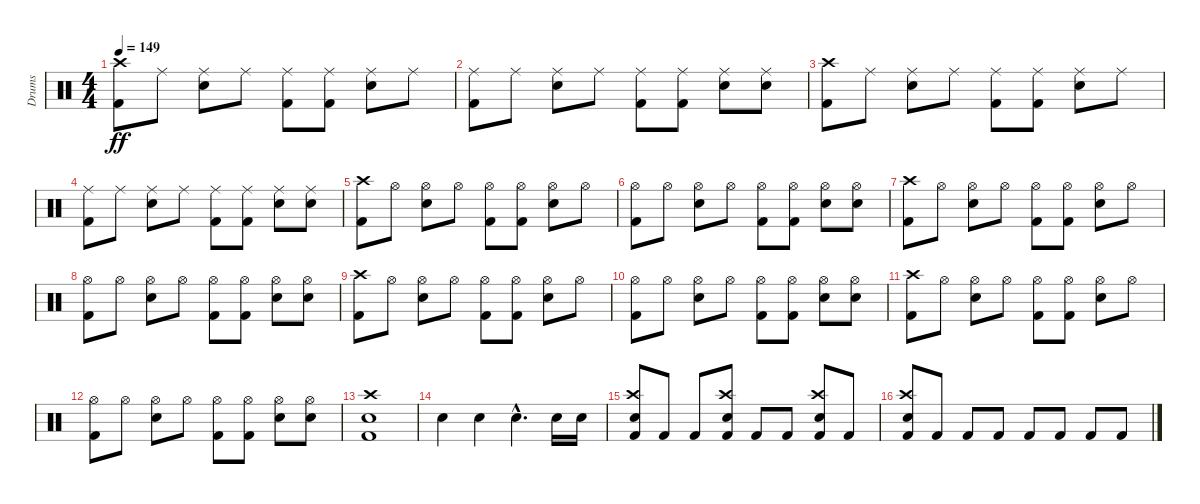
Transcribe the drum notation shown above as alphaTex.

\track ("Drums" "Drums") {instrument percussion}
\staff {score}
\articulation defaults
\ts (4 4)
\tempo 149
\clef neutral
\ks c
("Kick (hit) 2" "Crash high (hit)").8{dy ff} "Ride (middle)".8 ("Snare (hit) 2" "Ride (middle)").8 "Ride (middle)".8 ("Kick (hit) 2" "Ride (middle)").8 ("Kick (hit) 2" "Ride (middle)").8 ("Snare (hit) 2" "Ride (middle)").8 "Ride (middle)".8 |
("Kick (hit) 2" "Ride (middle)").8 "Ride (middle)".8 ("Snare (hit) 2" "Ride (middle)").8 "Ride (middle)".8 ("Kick (hit) 2" "Ride (middle)").8 ("Kick (hit) 2" "Ride (middle)").8 ("Snare (hit) 2" "Ride (middle)").8 ("Snare (hit) 2" "Ride (middle)").8 |
("Kick (hit) 2" "Crash high (hit)").8 "Ride (middle)".8 ("Snare (hit) 2" "Ride (middle)").8 "Ride (middle)".8 ("Kick (hit) 2" "Ride (middle)").8 ("Kick (hit) 2" "Ride (middle)").8 ("Snare (hit) 2" "Ride (middle)").8 "Ride (middle)".8 |
("Kick (hit) 2" "Ride (middle)").8 "Ride (middle)".8 ("Snare (hit) 2" "Ride (middle)").8 "Ride (middle)".8 ("Kick (hit) 2" "Ride (middle)").8 ("Kick (hit) 2" "Ride (middle)").8 ("Snare (hit) 2" "Ride (middle)").8 ("Snare (hit) 2" "Ride (middle)").8 |
("Kick (hit) 2" "Crash high (hit)").8 "Hi-Hat (open)".8 ("Snare (hit) 2" "Hi-Hat (open)").8 "Hi-Hat (open)".8 ("Kick (hit) 2" "Hi-Hat (open)").8 ("Kick (hit) 2" "Hi-Hat (open)").8 ("Snare (hit) 2" "Hi-Hat (open)").8 "Hi-Hat (open)".8 |
("Kick (hit) 2" "Hi-Hat (open)").8 "Hi-Hat (open)".8 ("Snare (hit) 2" "Hi-Hat (open)").8 "Hi-Hat (open)".8 ("Kick (hit) 2" "Hi-Hat (open)").8 ("Kick (hit) 2" "Hi-Hat (open)").8 ("Snare (hit) 2" "Hi-Hat (open)").8 ("Snare (hit) 2" "Hi-Hat (open)").8 |
("Kick (hit) 2" "Crash high (hit)").8 "Hi-Hat (open)".8 ("Snare (hit) 2" "Hi-Hat (open)").8 "Hi-Hat (open)".8 ("Kick (hit) 2" "Hi-Hat (open)").8 ("Kick (hit) 2" "Hi-Hat (open)").8 ("Snare (hit) 2" "Hi-Hat (open)").8 "Hi-Hat (open)".8 |
("Kick (hit) 2" "Hi-Hat (open)").8 "Hi-Hat (open)".8 ("Snare (hit) 2" "Hi-Hat (open)").8 "Hi-Hat (open)".8 ("Kick (hit) 2" "Hi-Hat (open)").8 ("Kick (hit) 2" "Hi-Hat (open)").8 ("Snare (hit) 2" "Hi-Hat (open)").8 ("Snare (hit) 2" "Hi-Hat (open)").8 |
("Kick (hit) 2" "Crash high (hit)").8 "Hi-Hat (open)".8 ("Snare (hit) 2" "Hi-Hat (open)").8 "Hi-Hat (open)".8 ("Kick (hit) 2" "Hi-Hat (open)").8 ("Kick (hit) 2" "Hi-Hat (open)").8 ("Snare (hit) 2" "Hi-Hat (open)").8 "Hi-Hat (open)".8 |
("Kick (hit) 2" "Hi-Hat (open)").8 "Hi-Hat (open)".8 ("Snare (hit) 2" "Hi-Hat (open)").8 "Hi-Hat (open)".8 ("Kick (hit) 2" "Hi-Hat (open)").8 ("Kick (hit) 2" "Hi-Hat (open)").8 ("Snare (hit) 2" "Hi-Hat (open)").8 ("Snare (hit) 2" "Hi-Hat (open)").8 |
("Kick (hit) 2" "Crash high (hit)").8 "Hi-Hat (open)".8 ("Snare (hit) 2" "Hi-Hat (open)").8 "Hi-Hat (open)".8 ("Kick (hit) 2" "Hi-Hat (open)").8 ("Kick (hit) 2" "Hi-Hat (open)").8 ("Snare (hit) 2" "Hi-Hat (open)").8 "Hi-Hat (open)".8 |
("Kick (hit) 2" "Hi-Hat (open)").8 "Hi-Hat (open)".8 ("Snare (hit) 2" "Hi-Hat (open)").8 "Hi-Hat (open)".8 ("Kick (hit) 2" "Hi-Hat (open)").8 ("Kick (hit) 2" "Hi-Hat (open)").8 ("Snare (hit) 2" "Hi-Hat (open)").8 ("Snare (hit) 2" "Hi-Hat (open)").8 |
("Kick (hit) 2" "Snare (hit) 2" "Crash high (hit)").1 |
"Snare (hit) 2".4 "Snare (hit) 2".4 "Snare (hit) 2"{hac}.4{d} "Snare (hit) 2".16 "Snare (hit) 2".16 |
("Kick (hit) 2" "Snare (hit) 2" "Crash high (hit)").8 "Kick (hit) 2".8 "Kick (hit) 2".8 ("Kick (hit) 2" "Snare (hit) 2" "Crash high (hit)").8 "Kick (hit) 2".8 "Kick (hit) 2".8 ("Kick (hit) 2" "Snare (hit) 2" "Crash high (hit)").8 "Kick (hit) 2".8 |
("Kick (hit) 2" "Snare (hit) 2" "Crash high (hit)").8 "Kick (hit) 2".8 "Kick (hit) 2".8 "Kick (hit) 2".8 "Kick (hit) 2".8 "Kick (hit) 2".8 "Kick (hit) 2".8 "Kick (hit) 2".8
